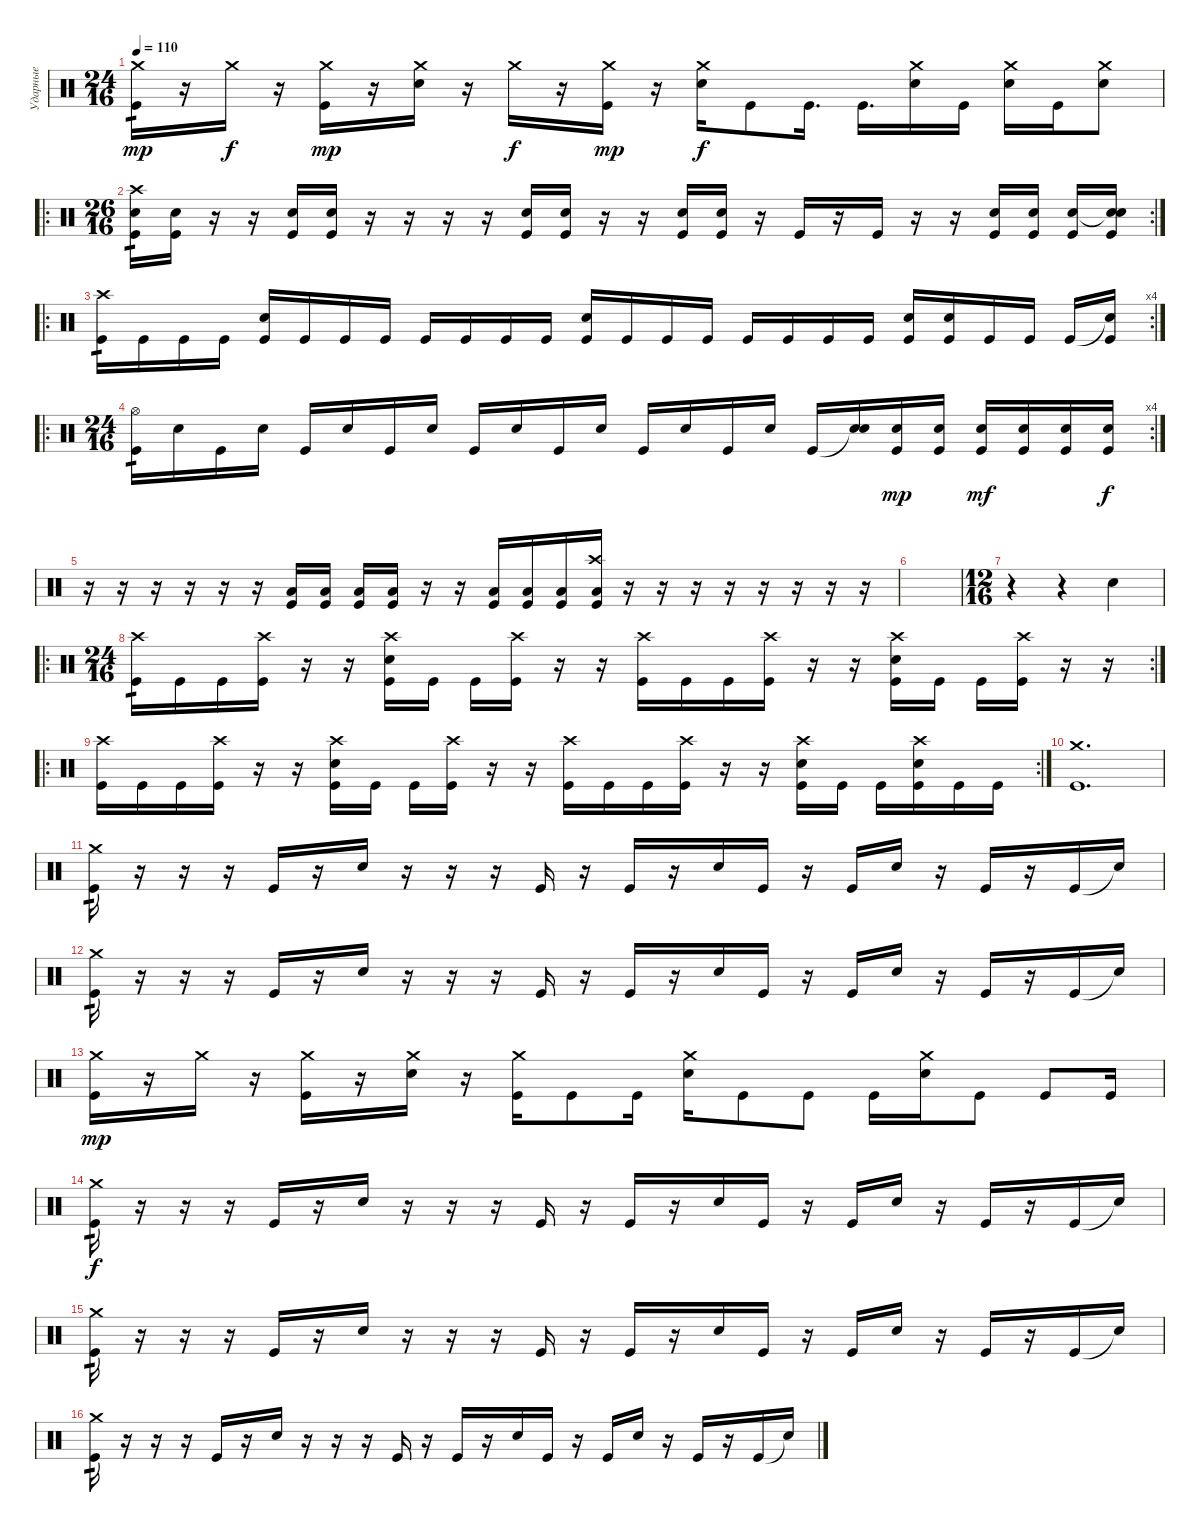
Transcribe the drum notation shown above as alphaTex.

\track ("Ударные" "Ударные") {instrument percussion}
\staff {score}
\articulation defaults
\ts (24 16)
\tempo 110
\clef neutral
\ks c
("Crash medium (hit)" "Kick (hit)").16{tp 1 dy mp} r.16 "Crash medium (hit)".16{dy f} r.16 ("Crash medium (hit)" "Kick (hit)").16{dy mp} r.16 ("Crash medium (hit)" "Electric Snare (hit)").16 r.16 "Crash medium (hit)".16{dy f} r.16 ("Crash medium (hit)" "Kick (hit)").16{dy mp} r.16 ("Crash medium (hit)" "Electric Snare (hit)").16{dy f} "Kick (hit)".8 "Kick (hit)".16{d} "Kick (hit)".16{d} ("Crash medium (hit)" "Electric Snare (hit)").16 "Kick (hit)".16 ("Crash medium (hit)" "Electric Snare (hit)").16 "Kick (hit)".16 ("Crash medium (hit)" "Electric Snare (hit)").8 |
\ro
\rc 2
\ts (26 16)
("Crash high (hit)" "Electric Snare (hit)" "Kick (hit)").16{tp 1} ("Electric Snare (hit)" "Kick (hit)").16 r.16 r.16 ("Electric Snare (hit)" "Kick (hit)").16 ("Electric Snare (hit)" "Kick (hit)").16 r.16 r.16 r.16 r.16 ("Electric Snare (hit)" "Kick (hit)").16 ("Electric Snare (hit)" "Kick (hit)").16 r.16 r.16 ("Electric Snare (hit)" "Kick (hit)").16 ("Electric Snare (hit)" "Kick (hit)").16 r.16 "Kick (hit)".16 r.16 "Kick (hit)".16 r.16 r.16 ("Electric Snare (hit)" "Kick (hit)").16 ("Electric Snare (hit)" "Kick (hit)").16 ("Electric Snare (hit)" "Kick (hit)").16 ("Snare (hit)"{t} "Electric Snare (hit)" "Kick (hit)").16 |
\ro
\rc 4
("Crash high (hit)" "Kick (hit)").16{tp 1} "Kick (hit)".16 "Kick (hit)".16 "Kick (hit)".16 ("Electric Snare (hit)" "Kick (hit)").16 "Kick (hit)".16 "Kick (hit)".16 "Kick (hit)".16 "Kick (hit)".16 "Kick (hit)".16 "Kick (hit)".16 "Kick (hit)".16 ("Electric Snare (hit)" "Kick (hit)").16 "Kick (hit)".16 "Kick (hit)".16 "Kick (hit)".16 "Kick (hit)".16 "Kick (hit)".16 "Kick (hit)".16 "Kick (hit)".16 ("Electric Snare (hit)" "Kick (hit)").16 ("Electric Snare (hit)" "Kick (hit)").16 "Kick (hit)".16 "Kick (hit)".16 "Kick (hit)".16 ("Snare (hit)"{t} "Kick (hit)").16 |
\ro
\rc 4
\ts (24 16)
("Hi-Hat (open)" "Kick (hit)").16{tp 1} "Electric Snare (hit)".16 "Kick (hit)".16 "Electric Snare (hit)".16 "Kick (hit)".16 "Electric Snare (hit)".16 "Kick (hit)".16 "Electric Snare (hit)".16 "Kick (hit)".16 "Electric Snare (hit)".16 "Kick (hit)".16 "Electric Snare (hit)".16 "Kick (hit)".16 "Electric Snare (hit)".16 "Kick (hit)".16 "Electric Snare (hit)".16 "Kick (hit)".16 ("Snare (hit)"{t} "Electric Snare (hit)").16 ("Electric Snare (hit)" "Kick (hit)").16{dy mp} ("Electric Snare (hit)" "Kick (hit)").16 ("Electric Snare (hit)" "Kick (hit)").16{dy mf} ("Electric Snare (hit)" "Kick (hit)").16 ("Electric Snare (hit)" "Kick (hit)").16 ("Electric Snare (hit)" "Kick (hit)").16{dy f} |
r.16 r.16 r.16 r.16 r.16 r.16 ("Low Floor Tom (hit)" "Kick (hit)").16 ("Low Floor Tom (hit)" "Kick (hit)").16 ("Low Floor Tom (hit)" "Kick (hit)").16 ("Low Floor Tom (hit)" "Kick (hit)").16 r.16 r.16 ("Low Floor Tom (hit)" "Kick (hit)").16 ("Low Floor Tom (hit)" "Kick (hit)").16 ("Low Floor Tom (hit)" "Kick (hit)").16 ("Crash high (hit)" "Low Floor Tom (hit)" "Kick (hit)").16 r.16 r.16 r.16 r.16 r.16 r.16 r.16 r.16 |
|
\ts (12 16)
r.4 r.4 "Electric Snare (hit)".4 |
\ro
\rc 2
\ts (24 16)
("Crash high (hit)" "Kick (hit)").16{tp 1} "Kick (hit)".16 "Kick (hit)".16 ("Crash high (hit)" "Kick (hit)").16 r.16 r.16 ("Crash high (hit)" "Electric Snare (hit)" "Kick (hit)").16 "Kick (hit)".16 "Kick (hit)".16 ("Crash high (hit)" "Kick (hit)").16 r.16 r.16 ("Crash high (hit)" "Kick (hit)").16 "Kick (hit)".16 "Kick (hit)".16 ("Crash high (hit)" "Kick (hit)").16 r.16 r.16 ("Crash high (hit)" "Electric Snare (hit)" "Kick (hit)").16 "Kick (hit)".16 "Kick (hit)".16 ("Crash high (hit)" "Kick (hit)").16 r.16 r.16 |
\ro
\rc 2
("Crash high (hit)" "Kick (hit)").16 "Kick (hit)".16 "Kick (hit)".16 ("Crash high (hit)" "Kick (hit)").16 r.16 r.16 ("Crash high (hit)" "Electric Snare (hit)" "Kick (hit)").16 "Kick (hit)".16 "Kick (hit)".16 ("Crash high (hit)" "Kick (hit)").16 r.16 r.16 ("Crash high (hit)" "Kick (hit)").16 "Kick (hit)".16 "Kick (hit)".16 ("Crash high (hit)" "Kick (hit)").16 r.16 r.16 ("Crash high (hit)" "Electric Snare (hit)" "Kick (hit)").16 "Kick (hit)".16 "Kick (hit)".16 ("Crash high (hit)" "Electric Snare (hit)" "Kick (hit)").16 "Kick (hit)".16 "Kick (hit)".16 |
("Crash medium (hit)" "Kick (hit)").1{d} |
("Crash medium (hit)" "Kick (hit)").16{tp 1} r.16 r.16 r.16 "Kick (hit)".16 r.16 "Electric Snare (hit)".16 r.16 r.16 r.16 "Kick (hit)".16 r.16 "Kick (hit)".16 r.16 "Electric Snare (hit)".16 "Kick (hit)".16 r.16 "Kick (hit)".16 "Electric Snare (hit)".16 r.16 "Kick (hit)".16 r.16 "Kick (hit)".16 "Snare (hit)"{t}.16 |
("Crash medium (hit)" "Kick (hit)").16{tp 1} r.16 r.16 r.16 "Kick (hit)".16 r.16 "Electric Snare (hit)".16 r.16 r.16 r.16 "Kick (hit)".16 r.16 "Kick (hit)".16 r.16 "Electric Snare (hit)".16 "Kick (hit)".16 r.16 "Kick (hit)".16 "Electric Snare (hit)".16 r.16 "Kick (hit)".16 r.16 "Kick (hit)".16 "Snare (hit)"{t}.16 |
("Crash medium (hit)" "Kick (hit)").16{dy mp} r.16 "Crash medium (hit)".16 r.16 ("Crash medium (hit)" "Kick (hit)").16 r.16 ("Crash medium (hit)" "Electric Snare (hit)").16 r.16 ("Crash medium (hit)" "Kick (hit)").16 "Kick (hit)".8 "Kick (hit)".16 ("Crash medium (hit)" "Electric Snare (hit)").16 "Kick (hit)".8 "Kick (hit)".8 "Kick (hit)".16 ("Crash medium (hit)" "Electric Snare (hit)").16 "Kick (hit)".8 "Kick (hit)".8 "Kick (hit)".16 |
("Crash medium (hit)" "Kick (hit)").16{tp 1 dy f} r.16 r.16 r.16 "Kick (hit)".16 r.16 "Electric Snare (hit)".16 r.16 r.16 r.16 "Kick (hit)".16 r.16 "Kick (hit)".16 r.16 "Electric Snare (hit)".16 "Kick (hit)".16 r.16 "Kick (hit)".16 "Electric Snare (hit)".16 r.16 "Kick (hit)".16 r.16 "Kick (hit)".16 "Snare (hit)"{t}.16 |
("Crash medium (hit)" "Kick (hit)").16{tp 1} r.16 r.16 r.16 "Kick (hit)".16 r.16 "Electric Snare (hit)".16 r.16 r.16 r.16 "Kick (hit)".16 r.16 "Kick (hit)".16 r.16 "Electric Snare (hit)".16 "Kick (hit)".16 r.16 "Kick (hit)".16 "Electric Snare (hit)".16 r.16 "Kick (hit)".16 r.16 "Kick (hit)".16 "Snare (hit)"{t}.16 |
("Crash medium (hit)" "Kick (hit)").16{tp 1} r.16 r.16 r.16 "Kick (hit)".16 r.16 "Electric Snare (hit)".16 r.16 r.16 r.16 "Kick (hit)".16 r.16 "Kick (hit)".16 r.16 "Electric Snare (hit)".16 "Kick (hit)".16 r.16 "Kick (hit)".16 "Electric Snare (hit)".16 r.16 "Kick (hit)".16 r.16 "Kick (hit)".16 "Snare (hit)"{t}.16
